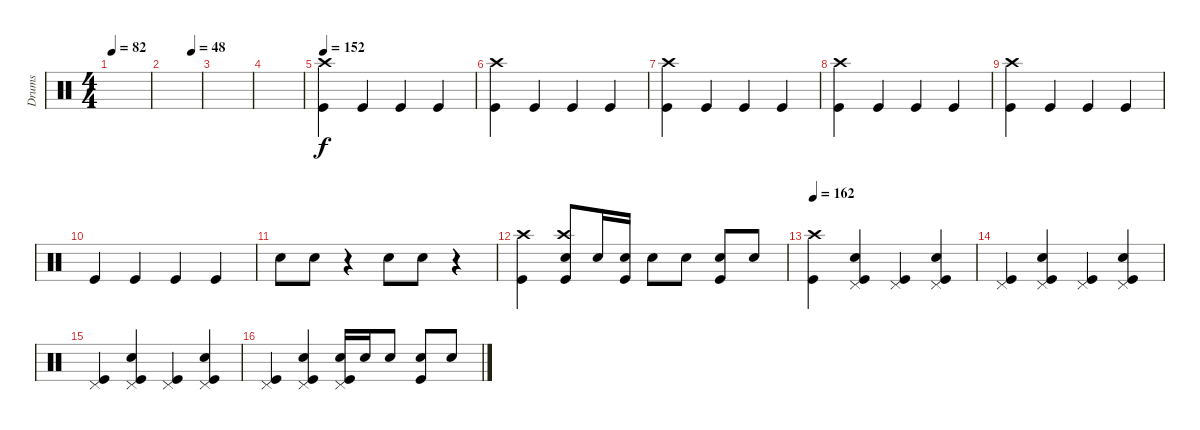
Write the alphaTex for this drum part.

\track ("Drums" "Drums") {instrument percussion}
\staff {score}
\articulation defaults
\ts (4 4)
\tempo 82
\clef neutral
\ks c
|
\tempo (48 0.75)
|
|
|
\tempo 152
("Kick (hit)" "Crash high (hit)").4 "Kick (hit)".4 "Kick (hit)".4 "Kick (hit)".4 |
("Kick (hit)" "Crash high (hit)").4 "Kick (hit)".4 "Kick (hit)".4 "Kick (hit)".4 |
("Kick (hit)" "Crash high (hit)").4 "Kick (hit)".4 "Kick (hit)".4 "Kick (hit)".4 |
("Kick (hit)" "Crash high (hit)").4 "Kick (hit)".4 "Kick (hit)".4 "Kick (hit)".4 |
("Kick (hit)" "Crash high (hit)").4 "Kick (hit)".4 "Kick (hit)".4 "Kick (hit)".4 |
"Kick (hit)".4 "Kick (hit)".4 "Kick (hit)".4 "Kick (hit)".4 |
"Snare (hit) 2".8 "Snare (hit) 2".8 r.4 "Snare (hit) 2".8 "Snare (hit) 2".8 r.4 |
("Kick (hit)" "Crash high (hit)").4 ("Kick (hit)" "Snare (hit) 2" "Crash high (hit)").8 "Snare (hit) 2".16 ("Kick (hit)" "Snare (hit) 2").16 "Snare (hit) 2".8 "Snare (hit) 2".8 ("Kick (hit)" "Snare (hit) 2").8 "Snare (hit) 2".8 |
\tempo 162
("Kick (hit)" "Crash high (hit)").4 ("Kick (hit)" "Snare (hit) 2" "Pedal Hi-Hat (hit)").4 ("Kick (hit)" "Pedal Hi-Hat (hit)").4 ("Kick (hit)" "Snare (hit) 2" "Pedal Hi-Hat (hit)").4 |
("Kick (hit)" "Pedal Hi-Hat (hit)").4 ("Kick (hit)" "Snare (hit) 2" "Pedal Hi-Hat (hit)").4 ("Kick (hit)" "Pedal Hi-Hat (hit)").4 ("Kick (hit)" "Snare (hit) 2" "Pedal Hi-Hat (hit)").4 |
("Kick (hit)" "Pedal Hi-Hat (hit)").4 ("Kick (hit)" "Snare (hit) 2" "Pedal Hi-Hat (hit)").4 ("Kick (hit)" "Pedal Hi-Hat (hit)").4 ("Kick (hit)" "Snare (hit) 2" "Pedal Hi-Hat (hit)").4 |
("Kick (hit)" "Pedal Hi-Hat (hit)").4 ("Kick (hit)" "Snare (hit) 2" "Pedal Hi-Hat (hit)").4 ("Kick (hit)" "Snare (hit) 2" "Pedal Hi-Hat (hit)").16 "Snare (hit) 2".16 "Snare (hit) 2".8 ("Kick (hit)" "Snare (hit) 2").8 "Snare (hit) 2".8
